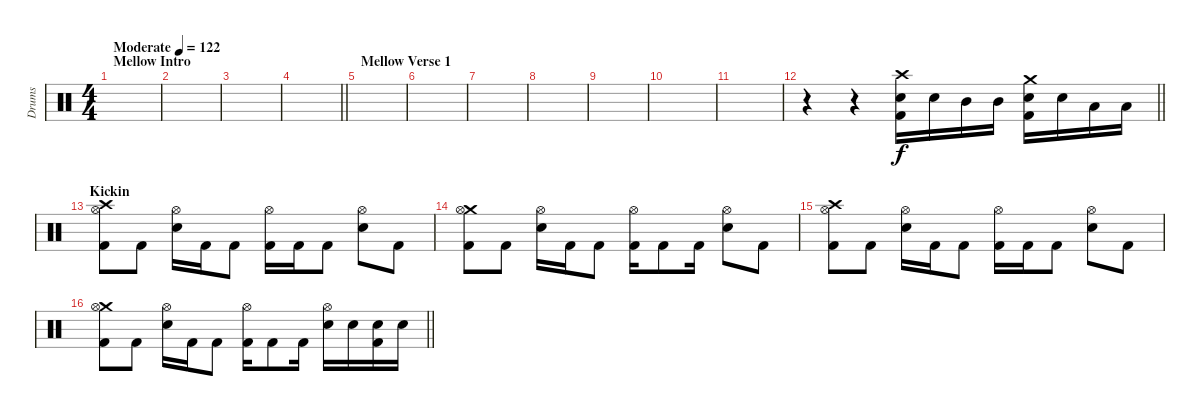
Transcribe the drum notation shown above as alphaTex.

\track ("Drums" "Drums") {instrument percussion}
\staff {score}
\articulation defaults
\ts (4 4)
\section ("" "Mellow Intro")
\tempo (122 "Moderate")
\clef neutral
\ks c
|
|
|
\barLineRight lightlight
|
\section ("" "Mellow Verse 1")
|
|
|
|
|
|
|
\barLineRight lightlight
r.4 r.4 ("Crash high (hit)" "Snare (hit) 2" "Kick (hit) 2").16 "Snare (hit) 2".16 "Mid Tom (hit)".16 "Mid Tom (hit)".16 ("Crash medium (hit)" "Snare (hit) 2" "Kick (hit) 2").16 "Snare (hit) 2".16 "Low Tom (hit)".16 "Low Tom (hit)".16 |
\section ("" "Kickin")
("Crash high (hit)" "Hi-Hat (open)" "Kick (hit) 2").8 "Kick (hit) 2".8 ("Hi-Hat (open)" "Snare (hit) 2").16 "Kick (hit) 2".16 "Kick (hit) 2".8 ("Hi-Hat (open)" "Kick (hit) 2").16 "Kick (hit) 2".16 "Kick (hit) 2".8 ("Hi-Hat (open)" "Snare (hit) 2").8 "Kick (hit) 2".8 |
("Crash medium (hit)" "Hi-Hat (open)" "Kick (hit) 2").8 "Kick (hit) 2".8 ("Hi-Hat (open)" "Snare (hit) 2").16 "Kick (hit) 2".16 "Kick (hit) 2".8 ("Hi-Hat (open)" "Kick (hit) 2").16 "Kick (hit) 2".8 "Kick (hit) 2".16 ("Hi-Hat (open)" "Snare (hit) 2").8 "Kick (hit) 2".8 |
("Crash high (hit)" "Hi-Hat (open)" "Kick (hit) 2").8 "Kick (hit) 2".8 ("Hi-Hat (open)" "Snare (hit) 2").16 "Kick (hit) 2".16 "Kick (hit) 2".8 ("Hi-Hat (open)" "Kick (hit) 2").16 "Kick (hit) 2".16 "Kick (hit) 2".8 ("Hi-Hat (open)" "Snare (hit) 2").8 "Kick (hit) 2".8 |
\barLineRight lightlight
("Crash medium (hit)" "Hi-Hat (open)" "Kick (hit) 2").8 "Kick (hit) 2".8 ("Hi-Hat (open)" "Snare (hit) 2").16 "Kick (hit) 2".16 "Kick (hit) 2".8 ("Hi-Hat (open)" "Kick (hit) 2").16 "Kick (hit) 2".8 "Kick (hit) 2".16 ("Hi-Hat (open)" "Snare (hit) 2").16 "Snare (hit) 2".16 ("Snare (hit) 2" "Kick (hit) 2").16 "Snare (hit) 2".16
